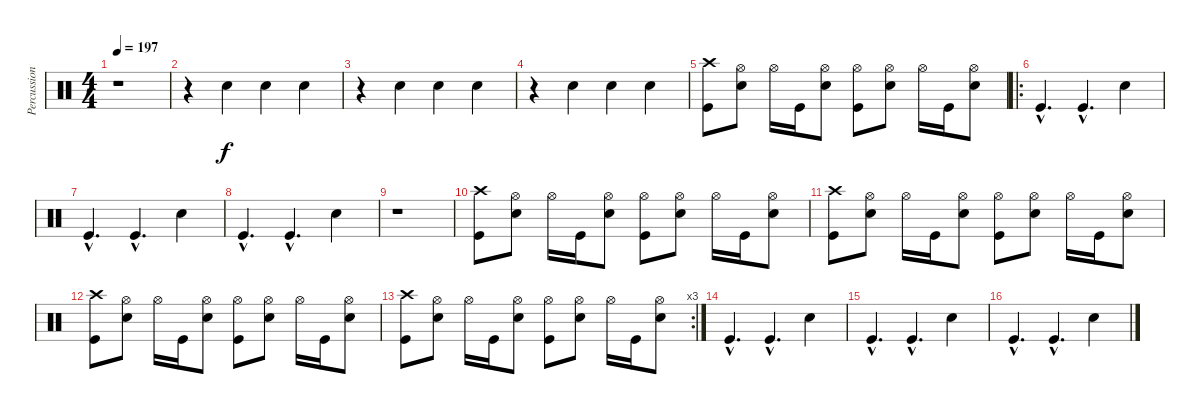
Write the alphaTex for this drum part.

\track ("Percussion" "Percussion") {instrument percussion}
\staff {score}
\articulation defaults
\ts (4 4)
\tempo 197
\clef neutral
\ks c
r.1{dy f} |
r.4 "Snare (hit) 2".4 "Snare (hit) 2".4 "Snare (hit) 2".4 |
r.4 "Snare (hit) 2".4 "Snare (hit) 2".4 "Snare (hit) 2".4 |
r.4 "Snare (hit) 2".4 "Snare (hit) 2".4 "Snare (hit) 2".4 |
("Crash high (hit)" "Kick (hit)").8 ("Hi-Hat (open)" "Snare (hit) 2").8 "Hi-Hat (open)".16 "Kick (hit)".16 ("Hi-Hat (open)" "Snare (hit) 2").8 ("Hi-Hat (open)" "Kick (hit)").8 ("Hi-Hat (open)" "Snare (hit) 2").8 "Hi-Hat (open)".16 "Kick (hit)".16 ("Hi-Hat (open)" "Snare (hit) 2").8 |
\ro "Kick (hit)"{hac}.4{d} "Kick (hit)"{hac}.4{d} "Snare (hit) 2".4
|
"Kick (hit)"{hac}.4{d} "Kick (hit)"{hac}.4{d} "Snare (hit) 2".4 |
"Kick (hit)"{hac}.4{d} "Kick (hit)"{hac}.4{d} "Snare (hit) 2".4 |
r.1 |
("Crash high (hit)" "Kick (hit)").8 ("Hi-Hat (open)" "Snare (hit) 2").8 "Hi-Hat (open)".16 "Kick (hit)".16 ("Hi-Hat (open)" "Snare (hit) 2").8 ("Hi-Hat (open)" "Kick (hit)").8 ("Hi-Hat (open)" "Snare (hit) 2").8 "Hi-Hat (open)".16 "Kick (hit)".16 ("Hi-Hat (open)" "Snare (hit) 2").8 |
("Crash high (hit)" "Kick (hit)").8 ("Hi-Hat (open)" "Snare (hit) 2").8 "Hi-Hat (open)".16 "Kick (hit)".16 ("Hi-Hat (open)" "Snare (hit) 2").8 ("Hi-Hat (open)" "Kick (hit)").8 ("Hi-Hat (open)" "Snare (hit) 2").8 "Hi-Hat (open)".16 "Kick (hit)".16 ("Hi-Hat (open)" "Snare (hit) 2").8 |
("Crash high (hit)" "Kick (hit)").8 ("Hi-Hat (open)" "Snare (hit) 2").8 "Hi-Hat (open)".16 "Kick (hit)".16 ("Hi-Hat (open)" "Snare (hit) 2").8 ("Hi-Hat (open)" "Kick (hit)").8 ("Hi-Hat (open)" "Snare (hit) 2").8 "Hi-Hat (open)".16 "Kick (hit)".16 ("Hi-Hat (open)" "Snare (hit) 2").8 |
\rc 3
("Crash high (hit)" "Kick (hit)").8 ("Hi-Hat (open)" "Snare (hit) 2").8 "Hi-Hat (open)".16 "Kick (hit)".16 ("Hi-Hat (open)" "Snare (hit) 2").8 ("Hi-Hat (open)" "Kick (hit)").8 ("Hi-Hat (open)" "Snare (hit) 2").8 "Hi-Hat (open)".16 "Kick (hit)".16 ("Hi-Hat (open)" "Snare (hit) 2").8 |
"Kick (hit)"{hac}.4{d} "Kick (hit)"{hac}.4{d} "Snare (hit) 2".4 |
"Kick (hit)"{hac}.4{d} "Kick (hit)"{hac}.4{d} "Snare (hit) 2".4 |
"Kick (hit)"{hac}.4{d} "Kick (hit)"{hac}.4{d} "Snare (hit) 2".4
